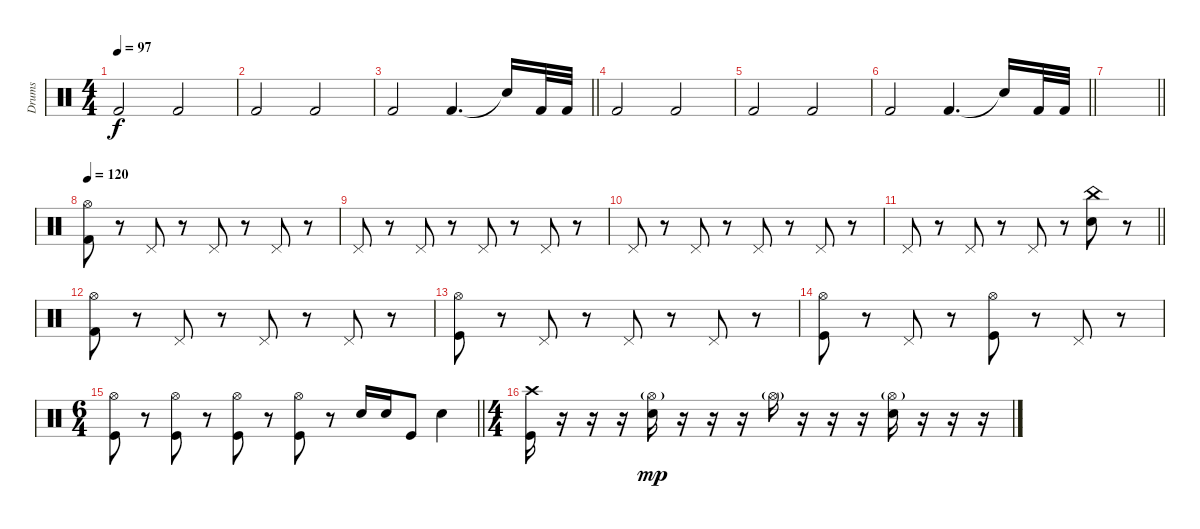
\track ("Drums" "Drums") {instrument percussion}
\staff
\articulation defaults
\ts (4 4)
\tempo 97
\clef neutral
\ks c "Kick (hit) 2".2{dy f} "Kick (hit) 2".2
|
"Kick (hit) 2".2 "Kick (hit) 2".2 |
\barLineRight lightlight "Kick (hit) 2".2 "Kick (hit) 2".4{d} "Snare (hit)"{t}.16 "Kick (hit) 2".32 "Kick (hit) 2".32
|
"Kick (hit) 2".2 "Kick (hit) 2".2 |
"Kick (hit) 2".2 "Kick (hit) 2".2 |
\barLineRight lightlight "Kick (hit) 2".2 "Kick (hit) 2".4{d} "Snare (hit)"{t}.16 "Kick (hit) 2".32 "Kick (hit) 2".32
|
\barLineRight lightlight
|
\tempo 120
("Hi-Hat (open)" "Kick (hit) 2").8 r.8 "Pedal Hi-Hat (hit)".8 r.8 "Pedal Hi-Hat (hit)".8 r.8 "Pedal Hi-Hat (hit)".8 r.8 |
"Pedal Hi-Hat (hit)".8 r.8 "Pedal Hi-Hat (hit)".8 r.8 "Pedal Hi-Hat (hit)".8 r.8 "Pedal Hi-Hat (hit)".8 r.8 |
"Pedal Hi-Hat (hit)".8 r.8 "Pedal Hi-Hat (hit)".8 r.8 "Pedal Hi-Hat (hit)".8 r.8 "Pedal Hi-Hat (hit)".8 r.8 |
\barLineRight lightlight "Pedal Hi-Hat (hit)".8
r.8 "Pedal Hi-Hat (hit)".8 r.8 "Pedal Hi-Hat (hit)".8 r.8 ("China (hit)" "Electric Snare (hit)").8 r.8 |
("Hi-Hat (open)" "Kick (hit) 2").8 r.8 "Pedal Hi-Hat (hit)".8 r.8 "Pedal Hi-Hat (hit)".8 r.8 "Pedal Hi-Hat (hit)".8 r.8 |
("Hi-Hat (open)" "Kick (hit)").8 r.8 "Pedal Hi-Hat (hit)".8 r.8 "Pedal Hi-Hat (hit)".8 r.8 "Pedal Hi-Hat (hit)".8 r.8 |
("Hi-Hat (open)" "Kick (hit)").8 r.8 "Pedal Hi-Hat (hit)".8 r.8 ("Hi-Hat (open)" "Kick (hit)").8 r.8 "Pedal Hi-Hat (hit)".8 r.8 |
\ts (6 4)
\barLineRight lightlight
("Hi-Hat (open)" "Kick (hit)").8 r.8 ("Hi-Hat (open)" "Kick (hit)").8 r.8 ("Hi-Hat (open)" "Kick (hit)").8 r.8 ("Hi-Hat (open)" "Kick (hit)").8 r.8 "Electric Snare (hit)".16 "Electric Snare (hit)".16 "Kick (hit)".8 "Electric Snare (hit)".4 |
\ts (4 4)
("Crash high (hit)" "Kick (hit)").16 r.16 r.16 r.16 ("Hi-Hat (open)"{g} "Electric Snare (hit)").16{dy mp} r.16 r.16 r.16 "Hi-Hat (open)"{g}.16 r.16 r.16 r.16 ("Hi-Hat (open)"{g} "Electric Snare (hit)").16 r.16 r.16 r.16
